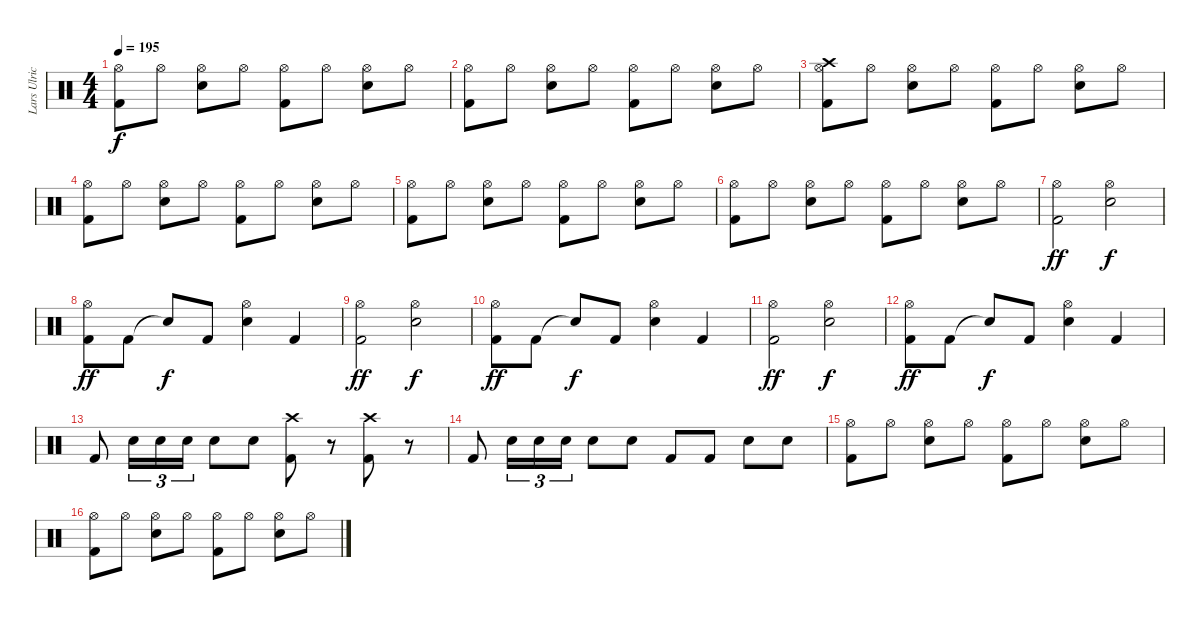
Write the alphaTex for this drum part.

\track ("Lars Ulrich" "Lars Ulric") {instrument percussion}
\staff {score}
\articulation defaults
\ts (4 4)
\tempo 195
\clef neutral
\ks c
("Kick (hit) 2" "Hi-Hat (open)").8{dy f} "Hi-Hat (open)".8 ("Snare (hit) 2" "Hi-Hat (open)").8 "Hi-Hat (open)".8 ("Kick (hit) 2" "Hi-Hat (open)").8 "Hi-Hat (open)".8 ("Snare (hit) 2" "Hi-Hat (open)").8 "Hi-Hat (open)".8 |
("Kick (hit) 2" "Hi-Hat (open)").8 "Hi-Hat (open)".8 ("Snare (hit) 2" "Hi-Hat (open)").8 "Hi-Hat (open)".8 ("Kick (hit) 2" "Hi-Hat (open)").8 "Hi-Hat (open)".8 ("Snare (hit) 2" "Hi-Hat (open)").8 "Hi-Hat (open)".8 |
("Kick (hit) 2" "Hi-Hat (open)" "Crash high (hit)").8 "Hi-Hat (open)".8 ("Snare (hit) 2" "Hi-Hat (open)").8 "Hi-Hat (open)".8 ("Kick (hit) 2" "Hi-Hat (open)").8 "Hi-Hat (open)".8 ("Snare (hit) 2" "Hi-Hat (open)").8 "Hi-Hat (open)".8 |
("Kick (hit) 2" "Hi-Hat (open)").8 "Hi-Hat (open)".8 ("Snare (hit) 2" "Hi-Hat (open)").8 "Hi-Hat (open)".8 ("Kick (hit) 2" "Hi-Hat (open)").8 "Hi-Hat (open)".8 ("Snare (hit) 2" "Hi-Hat (open)").8 "Hi-Hat (open)".8 |
("Kick (hit) 2" "Hi-Hat (open)").8 "Hi-Hat (open)".8 ("Snare (hit) 2" "Hi-Hat (open)").8 "Hi-Hat (open)".8 ("Kick (hit) 2" "Hi-Hat (open)").8 "Hi-Hat (open)".8 ("Snare (hit) 2" "Hi-Hat (open)").8 "Hi-Hat (open)".8 |
("Kick (hit) 2" "Hi-Hat (open)").8 "Hi-Hat (open)".8 ("Snare (hit) 2" "Hi-Hat (open)").8 "Hi-Hat (open)".8 ("Kick (hit) 2" "Hi-Hat (open)").8 "Hi-Hat (open)".8 ("Snare (hit) 2" "Hi-Hat (open)").8 "Hi-Hat (open)".8 |
("Kick (hit) 2" "Hi-Hat (open)").2{dy ff} ("Snare (hit) 2" "Hi-Hat (open)").2{dy f} |
("Kick (hit) 2" "Hi-Hat (open)").8{dy ff} "Kick (hit) 2".8 "Snare (hit)"{t}.8{dy f} "Kick (hit) 2".8 ("Snare (hit) 2" "Hi-Hat (open)").4 "Kick (hit) 2".4 |
("Kick (hit) 2" "Hi-Hat (open)").2{dy ff} ("Snare (hit) 2" "Hi-Hat (open)").2{dy f} |
("Kick (hit) 2" "Hi-Hat (open)").8{dy ff} "Kick (hit) 2".8 "Snare (hit)"{t}.8{dy f} "Kick (hit) 2".8 ("Snare (hit) 2" "Hi-Hat (open)").4 "Kick (hit) 2".4 |
("Kick (hit) 2" "Hi-Hat (open)").2{dy ff} ("Snare (hit) 2" "Hi-Hat (open)").2{dy f} |
("Kick (hit) 2" "Hi-Hat (open)").8{dy ff} "Kick (hit) 2".8 "Snare (hit)"{t}.8{dy f} "Kick (hit) 2".8 ("Snare (hit) 2" "Hi-Hat (open)").4 "Kick (hit) 2".4 |
"Kick (hit) 2".8 "Snare (hit) 2".16{tu (3 2)} "Snare (hit) 2".16{tu (3 2)} "Snare (hit) 2".16{tu (3 2)} "Snare (hit) 2".8 "Snare (hit) 2".8 ("Crash high (hit)" "Kick (hit) 2").8 r.8 ("Crash high (hit)" "Kick (hit) 2").8 r.8 |
"Kick (hit) 2".8 "Snare (hit) 2".16{tu (3 2)} "Snare (hit) 2".16{tu (3 2)} "Snare (hit) 2".16{tu (3 2)} "Snare (hit) 2".8 "Snare (hit) 2".8 "Kick (hit) 2".8 "Kick (hit) 2".8 "Snare (hit) 2".8 "Snare (hit) 2".8 |
("Kick (hit) 2" "Hi-Hat (open)").8 "Hi-Hat (open)".8 ("Snare (hit) 2" "Hi-Hat (open)").8 "Hi-Hat (open)".8 ("Kick (hit) 2" "Hi-Hat (open)").8 "Hi-Hat (open)".8 ("Snare (hit) 2" "Hi-Hat (open)").8 "Hi-Hat (open)".8 |
("Kick (hit) 2" "Hi-Hat (open)").8 "Hi-Hat (open)".8 ("Snare (hit) 2" "Hi-Hat (open)").8 "Hi-Hat (open)".8 ("Kick (hit) 2" "Hi-Hat (open)").8 "Hi-Hat (open)".8 ("Snare (hit) 2" "Hi-Hat (open)").8 "Hi-Hat (open)".8
